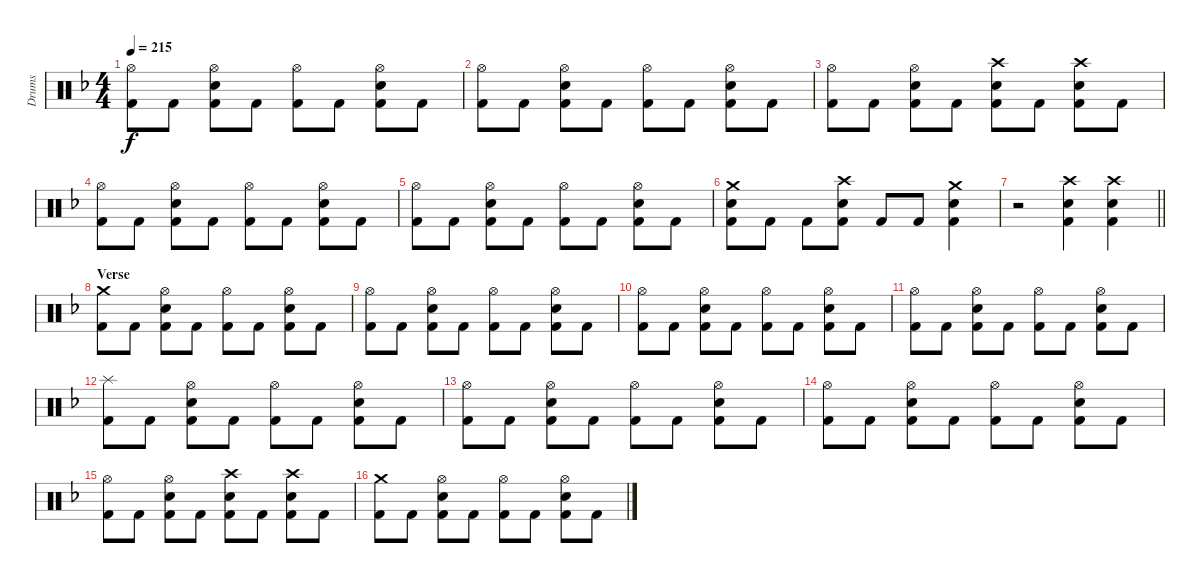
\track ("Drums" "Drums") {instrument percussion}
\staff {score}
\articulation defaults
\ts (4 4)
\tempo 215
\clef neutral
\ks f
("Hi-Hat (open)" "Kick (hit) 2").8{dy f} "Kick (hit) 2".8 ("Hi-Hat (open)" "Snare (hit) 2" "Kick (hit) 2").8 "Kick (hit) 2".8 ("Hi-Hat (open)" "Kick (hit) 2").8 "Kick (hit) 2".8 ("Hi-Hat (open)" "Snare (hit) 2" "Kick (hit) 2").8 "Kick (hit) 2".8 |
("Hi-Hat (open)" "Kick (hit) 2").8 "Kick (hit) 2".8 ("Hi-Hat (open)" "Snare (hit) 2" "Kick (hit) 2").8 "Kick (hit) 2".8 ("Hi-Hat (open)" "Kick (hit) 2").8 "Kick (hit) 2".8 ("Hi-Hat (open)" "Snare (hit) 2" "Kick (hit) 2").8 "Kick (hit) 2".8 |
("Hi-Hat (open)" "Kick (hit) 2").8 "Kick (hit) 2".8 ("Hi-Hat (open)" "Snare (hit) 2" "Kick (hit) 2").8 "Kick (hit) 2".8 ("Crash high (hit)" "Snare (hit) 2" "Kick (hit) 2").8 "Kick (hit) 2".8 ("Crash high (hit)" "Snare (hit) 2" "Kick (hit) 2").8 "Kick (hit) 2".8 |
("Hi-Hat (open)" "Kick (hit) 2").8 "Kick (hit) 2".8 ("Hi-Hat (open)" "Snare (hit) 2" "Kick (hit) 2").8 "Kick (hit) 2".8 ("Hi-Hat (open)" "Kick (hit) 2").8 "Kick (hit) 2".8 ("Hi-Hat (open)" "Snare (hit) 2" "Kick (hit) 2").8 "Kick (hit) 2".8 |
("Hi-Hat (open)" "Kick (hit) 2").8 "Kick (hit) 2".8 ("Hi-Hat (open)" "Snare (hit) 2" "Kick (hit) 2").8 "Kick (hit) 2".8 ("Hi-Hat (open)" "Kick (hit) 2").8 "Kick (hit) 2".8 ("Hi-Hat (open)" "Snare (hit) 2" "Kick (hit) 2").8 "Kick (hit) 2".8 |
("Crash medium (hit)" "Snare (hit) 2" "Kick (hit) 2").8 "Kick (hit) 2".8 "Kick (hit) 2".8 ("Crash high (hit)" "Snare (hit) 2" "Kick (hit) 2").8 "Kick (hit) 2".8 "Kick (hit) 2".8 ("Crash medium (hit)" "Snare (hit) 2" "Kick (hit) 2").4 |
\barLineRight lightlight
r.2 ("Crash high (hit)" "Snare (hit) 2" "Kick (hit) 2").4 ("Crash high (hit)" "Snare (hit) 2" "Kick (hit) 2").4 |
\section ("" "Verse")
("Crash medium (hit)" "Kick (hit) 2").8 "Kick (hit) 2".8 ("Hi-Hat (open)" "Snare (hit) 2" "Kick (hit) 2").8 "Kick (hit) 2".8 ("Hi-Hat (open)" "Kick (hit) 2").8 "Kick (hit) 2".8 ("Hi-Hat (open)" "Snare (hit) 2" "Kick (hit) 2").8 "Kick (hit) 2".8 |
("Hi-Hat (open)" "Kick (hit) 2").8 "Kick (hit) 2".8 ("Hi-Hat (open)" "Snare (hit) 2" "Kick (hit) 2").8 "Kick (hit) 2".8 ("Hi-Hat (open)" "Kick (hit) 2").8 "Kick (hit) 2".8 ("Hi-Hat (open)" "Snare (hit) 2" "Kick (hit) 2").8 "Kick (hit) 2".8 |
("Hi-Hat (open)" "Kick (hit) 2").8 "Kick (hit) 2".8 ("Hi-Hat (open)" "Snare (hit) 2" "Kick (hit) 2").8 "Kick (hit) 2".8 ("Hi-Hat (open)" "Kick (hit) 2").8 "Kick (hit) 2".8 ("Hi-Hat (open)" "Snare (hit) 2" "Kick (hit) 2").8 "Kick (hit) 2".8 |
("Hi-Hat (open)" "Kick (hit) 2").8 "Kick (hit) 2".8 ("Hi-Hat (open)" "Snare (hit) 2" "Kick (hit) 2").8 "Kick (hit) 2".8 ("Hi-Hat (open)" "Kick (hit) 2").8 "Kick (hit) 2".8 ("Hi-Hat (open)" "Snare (hit) 2" "Kick (hit) 2").8 "Kick (hit) 2".8 |
("Splash (hit)" "Kick (hit) 2").8 "Kick (hit) 2".8 ("Hi-Hat (open)" "Snare (hit) 2" "Kick (hit) 2").8 "Kick (hit) 2".8 ("Hi-Hat (open)" "Kick (hit) 2").8 "Kick (hit) 2".8 ("Hi-Hat (open)" "Snare (hit) 2" "Kick (hit) 2").8 "Kick (hit) 2".8 |
("Hi-Hat (open)" "Kick (hit) 2").8 "Kick (hit) 2".8 ("Hi-Hat (open)" "Snare (hit) 2" "Kick (hit) 2").8 "Kick (hit) 2".8 ("Hi-Hat (open)" "Kick (hit) 2").8 "Kick (hit) 2".8 ("Hi-Hat (open)" "Snare (hit) 2" "Kick (hit) 2").8 "Kick (hit) 2".8 |
("Hi-Hat (open)" "Kick (hit) 2").8 "Kick (hit) 2".8 ("Hi-Hat (open)" "Snare (hit) 2" "Kick (hit) 2").8 "Kick (hit) 2".8 ("Hi-Hat (open)" "Kick (hit) 2").8 "Kick (hit) 2".8 ("Hi-Hat (open)" "Snare (hit) 2" "Kick (hit) 2").8 "Kick (hit) 2".8 |
("Hi-Hat (open)" "Kick (hit) 2").8 "Kick (hit) 2".8 ("Hi-Hat (open)" "Snare (hit) 2" "Kick (hit) 2").8 "Kick (hit) 2".8 ("Crash high (hit)" "Snare (hit) 2" "Kick (hit) 2").8 "Kick (hit) 2".8 ("Crash high (hit)" "Snare (hit) 2" "Kick (hit) 2").8 "Kick (hit) 2".8 |
("Crash medium (hit)" "Kick (hit) 2").8 "Kick (hit) 2".8 ("Hi-Hat (open)" "Snare (hit) 2" "Kick (hit) 2").8 "Kick (hit) 2".8 ("Hi-Hat (open)" "Kick (hit) 2").8 "Kick (hit) 2".8 ("Hi-Hat (open)" "Snare (hit) 2" "Kick (hit) 2").8 "Kick (hit) 2".8
